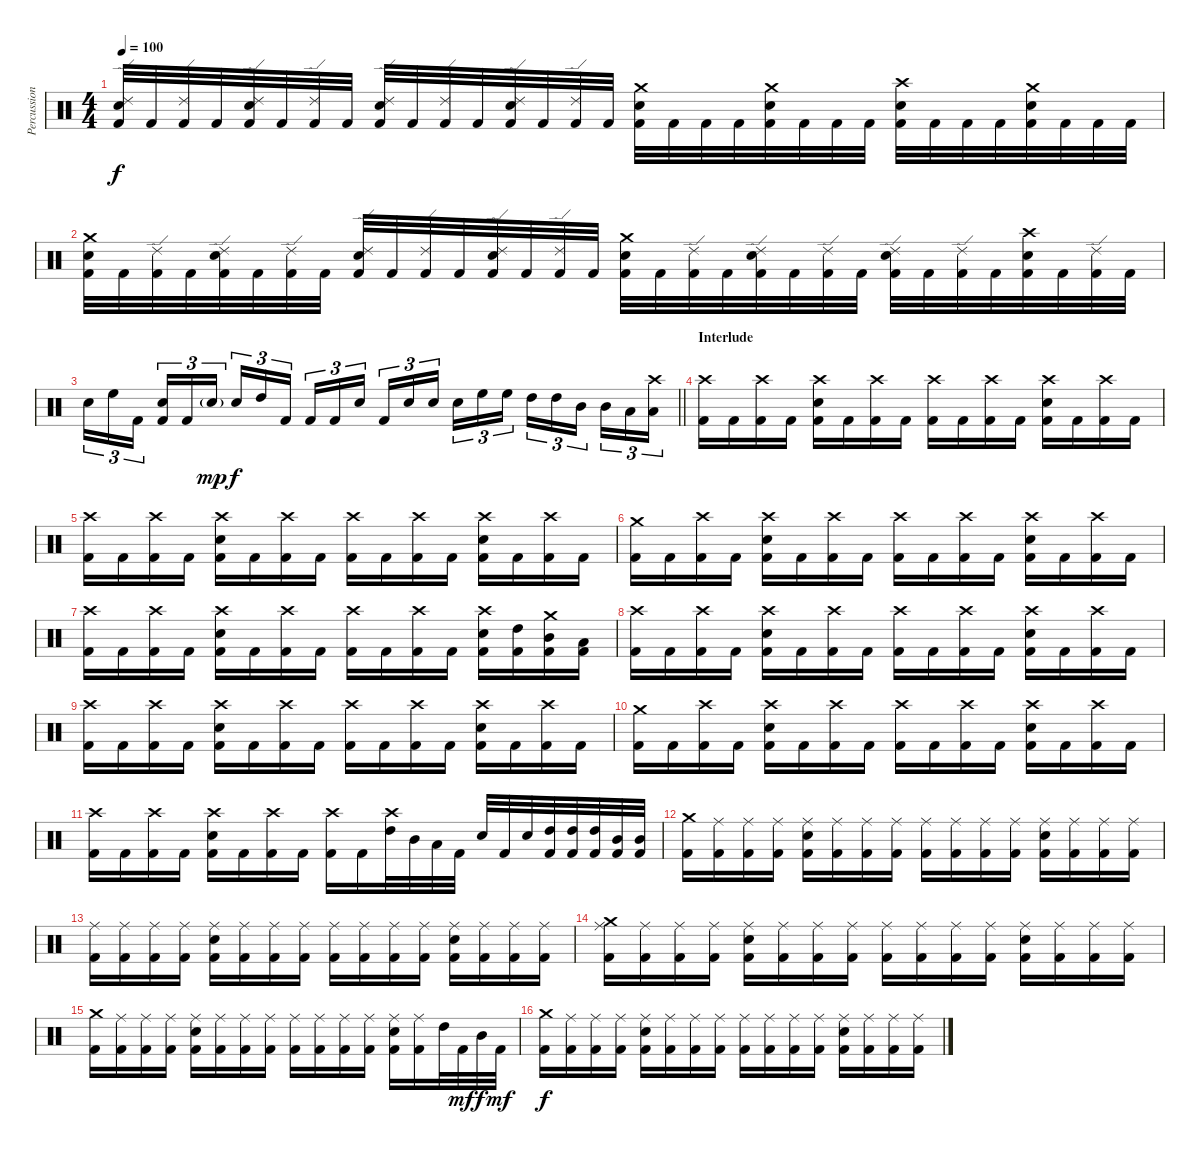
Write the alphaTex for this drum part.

\track ("Percussion" "Percussion") {instrument percussion}
\staff {score}
\articulation defaults
\ts (4 4)
\tempo 100
\clef neutral
\ks c
("Ride (edge) 2" "Electric Snare (hit)" "Kick (hit) 2").32{dy f} "Kick (hit) 2".32 ("Ride (edge) 2" "Kick (hit) 2").32 "Kick (hit) 2".32 ("Ride (edge) 2" "Electric Snare (hit)" "Kick (hit) 2").32 "Kick (hit) 2".32 ("Ride (edge) 2" "Kick (hit) 2").32 "Kick (hit) 2".32 ("Ride (edge) 2" "Electric Snare (hit)" "Kick (hit) 2").32 "Kick (hit) 2".32 ("Ride (edge) 2" "Kick (hit) 2").32 "Kick (hit) 2".32 ("Ride (edge) 2" "Electric Snare (hit)" "Kick (hit) 2").32 "Kick (hit) 2".32 ("Ride (edge) 2" "Kick (hit) 2").32 "Kick (hit) 2".32 ("Crash medium (hit)" "Electric Snare (hit)" "Kick (hit) 2").32 "Kick (hit) 2".32 "Kick (hit) 2".32 "Kick (hit) 2".32 ("Crash medium (hit)" "Electric Snare (hit)" "Kick (hit) 2").32 "Kick (hit) 2".32 "Kick (hit) 2".32 "Kick (hit) 2".32 ("Crash high (hit)" "Electric Snare (hit)" "Kick (hit) 2").32 "Kick (hit) 2".32 "Kick (hit) 2".32 "Kick (hit) 2".32 ("Crash medium (hit)" "Electric Snare (hit)" "Kick (hit) 2").32 "Kick (hit) 2".32 "Kick (hit) 2".32 "Kick (hit) 2".32 |
("Crash medium (hit)" "Electric Snare (hit)" "Kick (hit) 2").32 "Kick (hit) 2".32 ("Ride (edge) 2" "Kick (hit) 2").32 "Kick (hit) 2".32 ("Ride (edge) 2" "Electric Snare (hit)" "Kick (hit) 2").32 "Kick (hit) 2".32 ("Ride (edge) 2" "Kick (hit) 2").32 "Kick (hit) 2".32 ("Ride (edge) 2" "Electric Snare (hit)" "Kick (hit) 2").32 "Kick (hit) 2".32 ("Ride (edge) 2" "Kick (hit) 2").32 "Kick (hit) 2".32 ("Ride (edge) 2" "Electric Snare (hit)" "Kick (hit) 2").32 "Kick (hit) 2".32 ("Ride (edge) 2" "Kick (hit) 2").32 "Kick (hit) 2".32 ("Crash medium (hit)" "Electric Snare (hit)" "Kick (hit) 2").32 "Kick (hit) 2".32 ("Ride (edge) 2" "Kick (hit) 2").32 "Kick (hit) 2".32 ("Ride (edge) 2" "Electric Snare (hit)" "Kick (hit) 2").32 "Kick (hit) 2".32 ("Ride (edge) 2" "Kick (hit) 2").32 "Kick (hit) 2".32 ("Ride (edge) 2" "Electric Snare (hit)" "Kick (hit) 2").32 "Kick (hit) 2".32 ("Ride (edge) 2" "Kick (hit) 2").32 "Kick (hit) 2".32 ("Crash high (hit)" "Electric Snare (hit)" "Kick (hit) 2").32 "Kick (hit) 2".32 ("Ride (edge) 2" "Kick (hit) 2").32 "Kick (hit) 2".32 |
\barLineRight lightlight "Electric Snare (hit)".16{tu (3 2)} "High Floor Tom (hit)".16{tu (3 2)} "Kick (hit) 2".16{tu (3 2) beam splitsecondary}
("Electric Snare (hit)" "Kick (hit) 2").16{tu (3 2)} "Kick (hit) 2".16{tu (3 2)} "Electric Snare (hit)"{g}.16{tu (3 2) dy mp} "Electric Snare (hit)".16{tu (3 2) dy f} "High Tom (hit)".16{tu (3 2)} "Kick (hit) 2".16{tu (3 2) beam splitsecondary} "Kick (hit) 2".16{tu (3 2)} "Kick (hit) 2".16{tu (3 2)} "Electric Snare (hit)".16{tu (3 2)} "Kick (hit) 2".16{tu (3 2)} "Electric Snare (hit)".16{tu (3 2)} "Electric Snare (hit)".16{tu (3 2) beam splitsecondary} "Electric Snare (hit)".16{tu (3 2)} "High Floor Tom (hit)".16{tu (3 2)} "High Floor Tom (hit)".16{tu (3 2)} "High Tom (hit)".16{tu (3 2)} "High Tom (hit)".16{tu (3 2)} "Mid Tom (hit)".16{tu (3 2) beam splitsecondary} "Mid Tom (hit)".16{tu (3 2)} "Low Tom (hit)".16{tu (3 2)} ("Crash high (hit)" "Low Tom (hit)").16{tu (3 2)} |
\section ("" "Interlude")
("Crash high (hit)" "Kick (hit) 2").16 "Kick (hit) 2".16 ("Crash high (hit)" "Kick (hit) 2").16 "Kick (hit) 2".16 ("Crash high (hit)" "Electric Snare (hit)" "Kick (hit) 2").16 "Kick (hit) 2".16 ("Crash high (hit)" "Kick (hit) 2").16 "Kick (hit) 2".16 ("Crash high (hit)" "Kick (hit) 2").16 "Kick (hit) 2".16 ("Crash high (hit)" "Kick (hit) 2").16 "Kick (hit) 2".16 ("Crash high (hit)" "Electric Snare (hit)" "Kick (hit) 2").16 "Kick (hit) 2".16 ("Crash high (hit)" "Kick (hit) 2").16 "Kick (hit) 2".16 |
("Crash high (hit)" "Kick (hit) 2").16 "Kick (hit) 2".16 ("Crash high (hit)" "Kick (hit) 2").16 "Kick (hit) 2".16 ("Crash high (hit)" "Electric Snare (hit)" "Kick (hit) 2").16 "Kick (hit) 2".16 ("Crash high (hit)" "Kick (hit) 2").16 "Kick (hit) 2".16 ("Crash high (hit)" "Kick (hit) 2").16 "Kick (hit) 2".16 ("Crash high (hit)" "Kick (hit) 2").16 "Kick (hit) 2".16 ("Crash high (hit)" "Electric Snare (hit)" "Kick (hit) 2").16 "Kick (hit) 2".16 ("Crash high (hit)" "Kick (hit) 2").16 "Kick (hit) 2".16 |
("Crash medium (hit)" "Kick (hit) 2").16 "Kick (hit) 2".16 ("Crash high (hit)" "Kick (hit) 2").16 "Kick (hit) 2".16 ("Crash high (hit)" "Electric Snare (hit)" "Kick (hit) 2").16 "Kick (hit) 2".16 ("Crash high (hit)" "Kick (hit) 2").16 "Kick (hit) 2".16 ("Crash high (hit)" "Kick (hit) 2").16 "Kick (hit) 2".16 ("Crash high (hit)" "Kick (hit) 2").16 "Kick (hit) 2".16 ("Crash high (hit)" "Electric Snare (hit)" "Kick (hit) 2").16 "Kick (hit) 2".16 ("Crash high (hit)" "Kick (hit) 2").16 "Kick (hit) 2".16 |
("Crash high (hit)" "Kick (hit) 2").16 "Kick (hit) 2".16 ("Crash high (hit)" "Kick (hit) 2").16 "Kick (hit) 2".16 ("Crash high (hit)" "Electric Snare (hit)" "Kick (hit) 2").16 "Kick (hit) 2".16 ("Crash high (hit)" "Kick (hit) 2").16 "Kick (hit) 2".16 ("Crash high (hit)" "Kick (hit) 2").16 "Kick (hit) 2".16 ("Crash high (hit)" "Kick (hit) 2").16 "Kick (hit) 2".16 ("Crash high (hit)" "Electric Snare (hit)" "Kick (hit) 2").16 ("High Tom (hit)" "Kick (hit) 2").16 ("Crash medium (hit)" "Mid Tom (hit)" "Kick (hit) 2").16 ("Low Tom (hit)" "Kick (hit) 2").16 |
("Crash high (hit)" "Kick (hit) 2").16 "Kick (hit) 2".16 ("Crash high (hit)" "Kick (hit) 2").16 "Kick (hit) 2".16 ("Crash high (hit)" "Electric Snare (hit)" "Kick (hit) 2").16 "Kick (hit) 2".16 ("Crash high (hit)" "Kick (hit) 2").16 "Kick (hit) 2".16 ("Crash high (hit)" "Kick (hit) 2").16 "Kick (hit) 2".16 ("Crash high (hit)" "Kick (hit) 2").16 "Kick (hit) 2".16 ("Crash high (hit)" "Electric Snare (hit)" "Kick (hit) 2").16 "Kick (hit) 2".16 ("Crash high (hit)" "Kick (hit) 2").16 "Kick (hit) 2".16 |
("Crash high (hit)" "Kick (hit) 2").16 "Kick (hit) 2".16 ("Crash high (hit)" "Kick (hit) 2").16 "Kick (hit) 2".16 ("Crash high (hit)" "Electric Snare (hit)" "Kick (hit) 2").16 "Kick (hit) 2".16 ("Crash high (hit)" "Kick (hit) 2").16 "Kick (hit) 2".16 ("Crash high (hit)" "Kick (hit) 2").16 "Kick (hit) 2".16 ("Crash high (hit)" "Kick (hit) 2").16 "Kick (hit) 2".16 ("Crash high (hit)" "Electric Snare (hit)" "Kick (hit) 2").16 "Kick (hit) 2".16 ("Crash high (hit)" "Kick (hit) 2").16 "Kick (hit) 2".16 |
("Crash medium (hit)" "Kick (hit) 2").16 "Kick (hit) 2".16 ("Crash high (hit)" "Kick (hit) 2").16 "Kick (hit) 2".16 ("Crash high (hit)" "Electric Snare (hit)" "Kick (hit) 2").16 "Kick (hit) 2".16 ("Crash high (hit)" "Kick (hit) 2").16 "Kick (hit) 2".16 ("Crash high (hit)" "Kick (hit) 2").16 "Kick (hit) 2".16 ("Crash high (hit)" "Kick (hit) 2").16 "Kick (hit) 2".16 ("Crash high (hit)" "Electric Snare (hit)" "Kick (hit) 2").16 "Kick (hit) 2".16 ("Crash high (hit)" "Kick (hit) 2").16 "Kick (hit) 2".16 |
("Crash high (hit)" "Kick (hit) 2").16 "Kick (hit) 2".16 ("Crash high (hit)" "Kick (hit) 2").16 "Kick (hit) 2".16 ("Crash high (hit)" "Electric Snare (hit)" "Kick (hit) 2").16 "Kick (hit) 2".16 ("Crash high (hit)" "Kick (hit) 2").16 "Kick (hit) 2".16 ("Crash high (hit)" "Kick (hit) 2").16 "Kick (hit) 2".16 ("Crash high (hit)" "High Tom (hit)").32 "Mid Tom (hit)".32 "Low Tom (hit)".32 "Kick (hit) 2".32 "Electric Snare (hit)".32 "Kick (hit) 2".32 "Electric Snare (hit)".32 ("High Tom (hit)" "Kick (hit) 2").32 ("High Tom (hit)" "Kick (hit) 2").32 ("High Tom (hit)" "Kick (hit) 2").32 ("Mid Tom (hit)" "Kick (hit) 2").32 ("Mid Tom (hit)" "Kick (hit) 2").32 |
("Crash medium (hit)" "Kick (hit) 2").16 ("Ride (middle)" "Kick (hit) 2").16 ("Ride (middle)" "Kick (hit) 2").16 ("Ride (middle)" "Kick (hit) 2").16 ("Ride (middle)" "Electric Snare (hit)" "Kick (hit) 2").16 ("Ride (middle)" "Kick (hit) 2").16 ("Ride (middle)" "Kick (hit) 2").16 ("Ride (middle)" "Kick (hit) 2").16 ("Ride (middle)" "Kick (hit) 2").16 ("Ride (middle)" "Kick (hit) 2").16 ("Ride (middle)" "Kick (hit) 2").16 ("Ride (middle)" "Kick (hit) 2").16 ("Ride (middle)" "Electric Snare (hit)" "Kick (hit) 2").16 ("Ride (middle)" "Kick (hit) 2").16 ("Ride (middle)" "Kick (hit) 2").16 ("Ride (middle)" "Kick (hit) 2").16 |
("Ride (middle)" "Kick (hit) 2").16 ("Ride (middle)" "Kick (hit) 2").16 ("Ride (middle)" "Kick (hit) 2").16 ("Ride (middle)" "Kick (hit) 2").16 ("Ride (middle)" "Electric Snare (hit)" "Kick (hit) 2").16 ("Ride (middle)" "Kick (hit) 2").16 ("Ride (middle)" "Kick (hit) 2").16 ("Ride (middle)" "Kick (hit) 2").16 ("Ride (middle)" "Kick (hit) 2").16 ("Ride (middle)" "Kick (hit) 2").16 ("Ride (middle)" "Kick (hit) 2").16 ("Ride (middle)" "Kick (hit) 2").16 ("Ride (middle)" "Electric Snare (hit)" "Kick (hit) 2").16 ("Ride (middle)" "Kick (hit) 2").16 ("Ride (middle)" "Kick (hit) 2").16 ("Ride (middle)" "Kick (hit) 2").16 |
("Ride (middle)" "Crash medium (hit)" "Kick (hit) 2").16 ("Ride (middle)" "Kick (hit) 2").16 ("Ride (middle)" "Kick (hit) 2").16 ("Ride (middle)" "Kick (hit) 2").16 ("Ride (middle)" "Electric Snare (hit)" "Kick (hit) 2").16 ("Ride (middle)" "Kick (hit) 2").16 ("Ride (middle)" "Kick (hit) 2").16 ("Ride (middle)" "Kick (hit) 2").16 ("Ride (middle)" "Kick (hit) 2").16 ("Ride (middle)" "Kick (hit) 2").16 ("Ride (middle)" "Kick (hit) 2").16 ("Ride (middle)" "Kick (hit) 2").16 ("Ride (middle)" "Electric Snare (hit)" "Kick (hit) 2").16 ("Ride (middle)" "Kick (hit) 2").16 ("Ride (middle)" "Kick (hit) 2").16 ("Ride (middle)" "Kick (hit) 2").16 |
("Crash medium (hit)" "Kick (hit) 2").16 ("Ride (middle)" "Kick (hit) 2").16 ("Ride (middle)" "Kick (hit) 2").16 ("Ride (middle)" "Kick (hit) 2").16 ("Ride (middle)" "Electric Snare (hit)" "Kick (hit) 2").16 ("Ride (middle)" "Kick (hit) 2").16 ("Ride (middle)" "Kick (hit) 2").16 ("Ride (middle)" "Kick (hit) 2").16 ("Ride (middle)" "Kick (hit) 2").16 ("Ride (middle)" "Kick (hit) 2").16 ("Ride (middle)" "Kick (hit) 2").16 ("Ride (middle)" "Kick (hit) 2").16 ("Ride (middle)" "Electric Snare (hit)" "Kick (hit) 2").16 ("Ride (middle)" "Kick (hit) 2").16 "High Tom (hit)".32 "Kick (hit) 2".32{dy mf} "Mid Tom (hit)".32{dy f} "Kick (hit) 2".32{dy mf} |
("Crash medium (hit)" "Kick (hit) 2").16{dy f} ("Ride (middle)" "Kick (hit) 2").16 ("Ride (middle)" "Kick (hit) 2").16 ("Ride (middle)" "Kick (hit) 2").16 ("Ride (middle)" "Electric Snare (hit)" "Kick (hit) 2").16 ("Ride (middle)" "Kick (hit) 2").16 ("Ride (middle)" "Kick (hit) 2").16 ("Ride (middle)" "Kick (hit) 2").16 ("Ride (middle)" "Kick (hit) 2").16 ("Ride (middle)" "Kick (hit) 2").16 ("Ride (middle)" "Kick (hit) 2").16 ("Ride (middle)" "Kick (hit) 2").16 ("Ride (middle)" "Electric Snare (hit)" "Kick (hit) 2").16 ("Ride (middle)" "Kick (hit) 2").16 ("Ride (middle)" "Kick (hit) 2").16 ("Ride (middle)" "Kick (hit) 2").16
